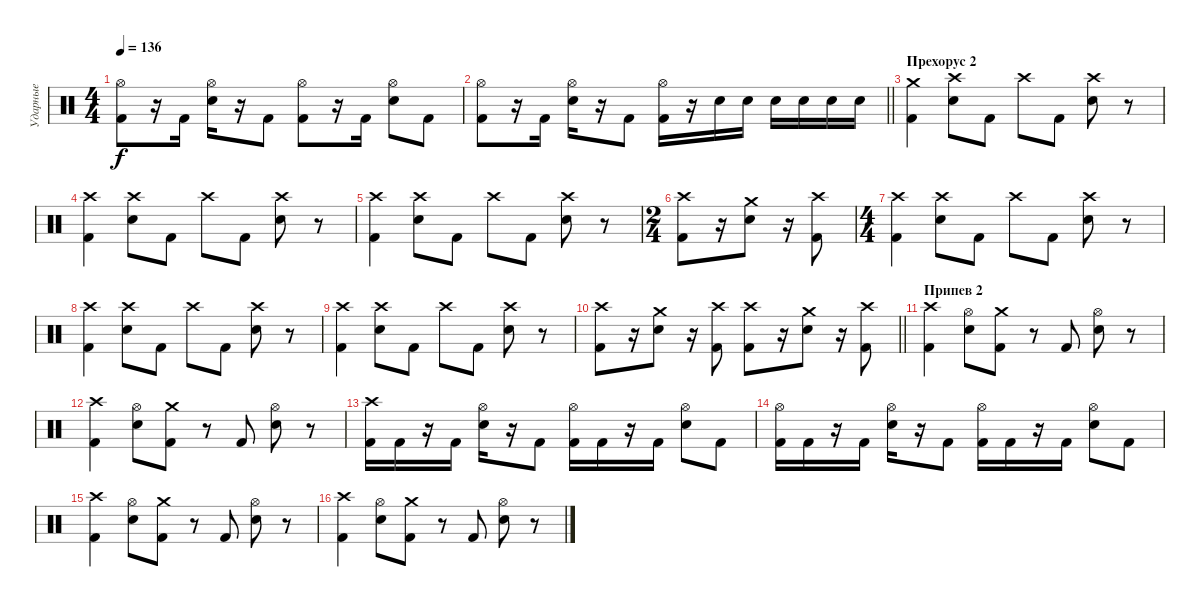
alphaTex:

\track ("Ударные" "Ударные") {instrument percussion}
\staff {score}
\articulation defaults
\ts (4 4)
\tempo 136
\clef neutral
\ks c
("Hi-Hat (open)" "Kick (hit) 2").8{dy f} r.16 "Kick (hit) 2".16 ("Hi-Hat (open)" "Snare (hit) 2").16 r.16 "Kick (hit) 2".8 ("Hi-Hat (open)" "Kick (hit) 2").8 r.16 "Kick (hit) 2".16 ("Hi-Hat (open)" "Snare (hit) 2").8 "Kick (hit) 2".8 |
\barLineRight lightlight
("Hi-Hat (open)" "Kick (hit) 2").8 r.16 "Kick (hit) 2".16 ("Hi-Hat (open)" "Snare (hit) 2").16 r.16 "Kick (hit) 2".8 ("Hi-Hat (open)" "Kick (hit) 2").16 r.16 "Snare (hit) 2".16 "Snare (hit) 2".16 "Snare (hit) 2".16 "Snare (hit) 2".16 "Snare (hit) 2".16 "Snare (hit) 2".16 |
\section ("" "Прехорус 2")
("Crash medium (hit)" "Kick (hit) 2").4 ("Crash high (hit)" "Snare (hit) 2").8 "Kick (hit) 2".8 "Crash high (hit)".8 "Kick (hit) 2".8 ("Crash high (hit)" "Snare (hit) 2").8 r.8 |
("Crash high (hit)" "Kick (hit) 2").4 ("Crash high (hit)" "Snare (hit) 2").8 "Kick (hit) 2".8 "Crash high (hit)".8 "Kick (hit) 2".8 ("Crash high (hit)" "Snare (hit) 2").8 r.8 |
("Crash high (hit)" "Kick (hit) 2").4 ("Crash high (hit)" "Snare (hit) 2").8 "Kick (hit) 2".8 "Crash high (hit)".8 "Kick (hit) 2".8 ("Crash high (hit)" "Snare (hit) 2").8 r.8 |
\ts (2 4)
("Crash high (hit)" "Kick (hit) 2").8 r.16 ("Crash medium (hit)" "Snare (hit) 2").8 r.16 ("Crash high (hit)" "Kick (hit) 2").8 |
\ts (4 4)
("Crash high (hit)" "Kick (hit) 2").4 ("Crash high (hit)" "Snare (hit) 2").8 "Kick (hit) 2".8 "Crash high (hit)".8 "Kick (hit) 2".8 ("Crash high (hit)" "Snare (hit) 2").8 r.8 |
("Crash high (hit)" "Kick (hit) 2").4 ("Crash high (hit)" "Snare (hit) 2").8 "Kick (hit) 2".8 "Crash high (hit)".8 "Kick (hit) 2".8 ("Crash high (hit)" "Snare (hit) 2").8 r.8 |
("Crash high (hit)" "Kick (hit) 2").4 ("Crash high (hit)" "Snare (hit) 2").8 "Kick (hit) 2".8 "Crash high (hit)".8 "Kick (hit) 2".8 ("Crash high (hit)" "Snare (hit) 2").8 r.8 |
\barLineRight lightlight
("Crash high (hit)" "Kick (hit) 2").8 r.16 ("Crash medium (hit)" "Snare (hit) 2").8 r.16 ("Crash high (hit)" "Kick (hit) 2").8 ("Crash high (hit)" "Kick (hit) 2").8 r.16 ("Crash medium (hit)" "Snare (hit) 2").8 r.16 ("Crash high (hit)" "Kick (hit) 2").8 |
\section ("" "Припев 2")
("Crash high (hit)" "Kick (hit) 2").4 ("Hi-Hat (open)" "Snare (hit) 2").8 ("Crash medium (hit)" "Kick (hit) 2").8 r.8 "Kick (hit) 2".8 ("Hi-Hat (open)" "Snare (hit) 2").8 r.8 |
("Crash high (hit)" "Kick (hit) 2").4 ("Hi-Hat (open)" "Snare (hit) 2").8 ("Crash medium (hit)" "Kick (hit) 2").8 r.8 "Kick (hit) 2".8 ("Hi-Hat (open)" "Snare (hit) 2").8 r.8 |
("Crash high (hit)" "Kick (hit) 2").16 "Kick (hit) 2".16 r.16 "Kick (hit) 2".16 ("Hi-Hat (open)" "Snare (hit) 2").16 r.16 "Kick (hit) 2".8 ("Hi-Hat (open)" "Kick (hit) 2").16 "Kick (hit) 2".16 r.16 "Kick (hit) 2".16 ("Hi-Hat (open)" "Snare (hit) 2").8 "Kick (hit) 2".8 |
("Hi-Hat (open)" "Kick (hit) 2").16 "Kick (hit) 2".16 r.16 "Kick (hit) 2".16 ("Hi-Hat (open)" "Snare (hit) 2").16 r.16 "Kick (hit) 2".8 ("Hi-Hat (open)" "Kick (hit) 2").16 "Kick (hit) 2".16 r.16 "Kick (hit) 2".16 ("Hi-Hat (open)" "Snare (hit) 2").8 "Kick (hit) 2".8 |
("Crash high (hit)" "Kick (hit) 2").4 ("Hi-Hat (open)" "Snare (hit) 2").8 ("Crash medium (hit)" "Kick (hit) 2").8 r.8 "Kick (hit) 2".8 ("Hi-Hat (open)" "Snare (hit) 2").8 r.8 |
("Crash high (hit)" "Kick (hit) 2").4 ("Hi-Hat (open)" "Snare (hit) 2").8 ("Crash medium (hit)" "Kick (hit) 2").8 r.8 "Kick (hit) 2".8 ("Hi-Hat (open)" "Snare (hit) 2").8 r.8
